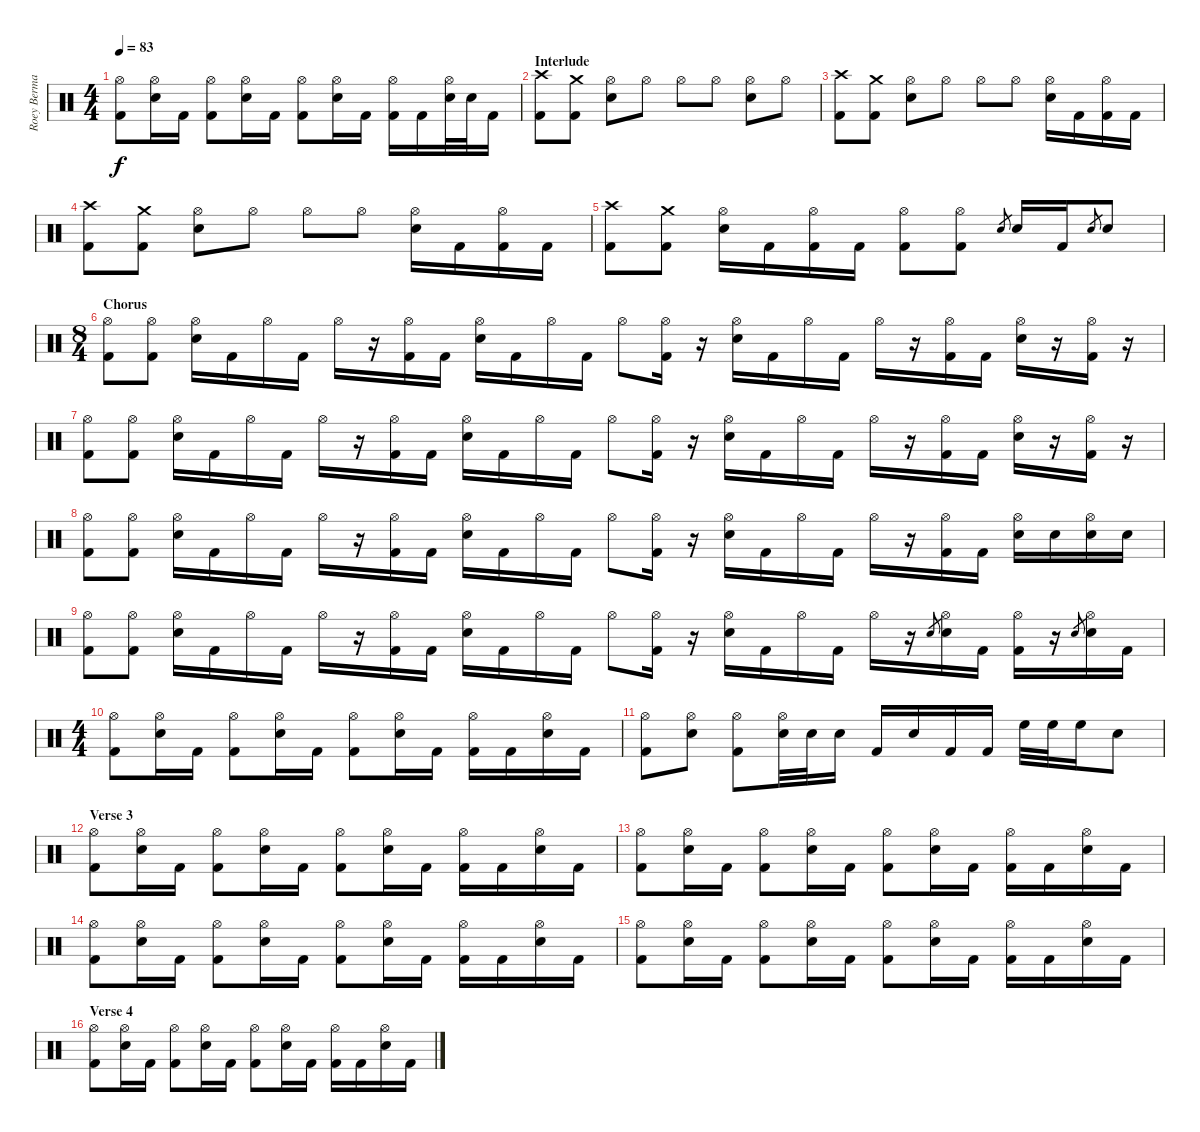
\track ("Roey Berman" "Roey Berma") {instrument percussion}
\staff {score}
\articulation defaults
\ts (4 4)
\tempo 83
\clef neutral
\ks c
("Hi-Hat (open)" "Kick (hit) 2").8{dy f} ("Hi-Hat (open)" "Electric Snare (hit)").16 "Kick (hit) 2".16 ("Hi-Hat (open)" "Kick (hit) 2").8 ("Hi-Hat (open)" "Electric Snare (hit)").16 "Kick (hit) 2".16 ("Hi-Hat (open)" "Kick (hit) 2").8 ("Hi-Hat (open)" "Electric Snare (hit)").16 "Kick (hit) 2".16 ("Hi-Hat (open)" "Kick (hit) 2").16 "Kick (hit) 2".16 ("Hi-Hat (open)" "Electric Snare (hit)").32 "Electric Snare (hit)".32 "Kick (hit) 2".16 |
\section ("" "Interlude")
("Crash high (hit)" "Kick (hit) 2").8 ("Crash medium (hit)" "Kick (hit) 2").8 ("Hi-Hat (open)" "Electric Snare (hit)").8 "Hi-Hat (open)".8 "Hi-Hat (open)".8 "Hi-Hat (open)".8 ("Hi-Hat (open)" "Electric Snare (hit)").8 "Hi-Hat (open)".8 |
("Crash high (hit)" "Kick (hit) 2").8 ("Crash medium (hit)" "Kick (hit) 2").8 ("Hi-Hat (open)" "Electric Snare (hit)").8 "Hi-Hat (open)".8 "Hi-Hat (open)".8 "Hi-Hat (open)".8 ("Hi-Hat (open)" "Electric Snare (hit)").16 "Kick (hit) 2".16 ("Hi-Hat (open)" "Kick (hit) 2").16 "Kick (hit) 2".16 |
("Crash high (hit)" "Kick (hit) 2").8 ("Crash medium (hit)" "Kick (hit) 2").8 ("Hi-Hat (open)" "Electric Snare (hit)").8 "Hi-Hat (open)".8 "Hi-Hat (open)".8 "Hi-Hat (open)".8 ("Hi-Hat (open)" "Electric Snare (hit)").16 "Kick (hit) 2".16 ("Hi-Hat (open)" "Kick (hit) 2").16 "Kick (hit) 2".16 |
("Crash high (hit)" "Kick (hit) 2").8 ("Crash medium (hit)" "Kick (hit) 2").8 ("Hi-Hat (open)" "Electric Snare (hit)").16 "Kick (hit) 2".16 ("Hi-Hat (open)" "Kick (hit) 2").16 "Kick (hit) 2".16 ("Hi-Hat (open)" "Kick (hit) 2").8 ("Hi-Hat (open)" "Kick (hit) 2").8 "Electric Snare (hit)".8{gr} "Electric Snare (hit)".16 "Kick (hit) 2".16 "Electric Snare (hit)".8{gr} "Electric Snare (hit)".8 |
\ts (8 4)
\section ("" "Chorus")
("Hi-Hat (open)" "Kick (hit) 2").8 ("Hi-Hat (open)" "Kick (hit) 2").8 ("Hi-Hat (open)" "Electric Snare (hit)").16 "Kick (hit) 2".16 "Hi-Hat (open)".16 "Kick (hit) 2".16 "Hi-Hat (open)".16 r.16 ("Hi-Hat (open)" "Kick (hit) 2").16 "Kick (hit) 2".16 ("Hi-Hat (open)" "Electric Snare (hit)").16 "Kick (hit) 2".16 "Hi-Hat (open)".16 "Kick (hit) 2".16 "Hi-Hat (open)".8 ("Hi-Hat (open)" "Kick (hit) 2").16 r.16 ("Hi-Hat (open)" "Electric Snare (hit)").16 "Kick (hit) 2".16 "Hi-Hat (open)".16 "Kick (hit) 2".16 "Hi-Hat (open)".16 r.16 ("Hi-Hat (open)" "Kick (hit) 2").16 "Kick (hit) 2".16 ("Hi-Hat (open)" "Electric Snare (hit)").16 r.16 ("Hi-Hat (open)" "Kick (hit) 2").16 r.16 |
("Hi-Hat (open)" "Kick (hit) 2").8 ("Hi-Hat (open)" "Kick (hit) 2").8 ("Hi-Hat (open)" "Electric Snare (hit)").16 "Kick (hit) 2".16 "Hi-Hat (open)".16 "Kick (hit) 2".16 "Hi-Hat (open)".16 r.16 ("Hi-Hat (open)" "Kick (hit) 2").16 "Kick (hit) 2".16 ("Hi-Hat (open)" "Electric Snare (hit)").16 "Kick (hit) 2".16 "Hi-Hat (open)".16 "Kick (hit) 2".16 "Hi-Hat (open)".8 ("Hi-Hat (open)" "Kick (hit) 2").16 r.16 ("Hi-Hat (open)" "Electric Snare (hit)").16 "Kick (hit) 2".16 "Hi-Hat (open)".16 "Kick (hit) 2".16 "Hi-Hat (open)".16 r.16 ("Hi-Hat (open)" "Kick (hit) 2").16 "Kick (hit) 2".16 ("Hi-Hat (open)" "Electric Snare (hit)").16 r.16 ("Hi-Hat (open)" "Kick (hit) 2").16 r.16 |
("Hi-Hat (open)" "Kick (hit) 2").8 ("Hi-Hat (open)" "Kick (hit) 2").8 ("Hi-Hat (open)" "Electric Snare (hit)").16 "Kick (hit) 2".16 "Hi-Hat (open)".16 "Kick (hit) 2".16 "Hi-Hat (open)".16 r.16 ("Hi-Hat (open)" "Kick (hit) 2").16 "Kick (hit) 2".16 ("Hi-Hat (open)" "Electric Snare (hit)").16 "Kick (hit) 2".16 "Hi-Hat (open)".16 "Kick (hit) 2".16 "Hi-Hat (open)".8 ("Hi-Hat (open)" "Kick (hit) 2").16 r.16 ("Hi-Hat (open)" "Electric Snare (hit)").16 "Kick (hit) 2".16 "Hi-Hat (open)".16 "Kick (hit) 2".16 "Hi-Hat (open)".16 r.16 ("Hi-Hat (open)" "Kick (hit) 2").16 "Kick (hit) 2".16 ("Hi-Hat (open)" "Electric Snare (hit)").16 "Electric Snare (hit)".16 ("Hi-Hat (open)" "Electric Snare (hit)").16 "Electric Snare (hit)".16 |
("Hi-Hat (open)" "Kick (hit) 2").8 ("Hi-Hat (open)" "Kick (hit) 2").8 ("Hi-Hat (open)" "Electric Snare (hit)").16 "Kick (hit) 2".16 "Hi-Hat (open)".16 "Kick (hit) 2".16 "Hi-Hat (open)".16 r.16 ("Hi-Hat (open)" "Kick (hit) 2").16 "Kick (hit) 2".16 ("Hi-Hat (open)" "Electric Snare (hit)").16 "Kick (hit) 2".16 "Hi-Hat (open)".16 "Kick (hit) 2".16 "Hi-Hat (open)".8 ("Hi-Hat (open)" "Kick (hit) 2").16 r.16 ("Hi-Hat (open)" "Electric Snare (hit)").16 "Kick (hit) 2".16 "Hi-Hat (open)".16 "Kick (hit) 2".16 "Hi-Hat (open)".16 r.16 "Electric Snare (hit)".8{gr} ("Hi-Hat (open)" "Electric Snare (hit)").16 "Kick (hit) 2".16 ("Hi-Hat (open)" "Kick (hit) 2").16 r.16 "Electric Snare (hit)".8{gr} ("Hi-Hat (open)" "Electric Snare (hit)").16 "Kick (hit) 2".16 |
\ts (4 4)
("Hi-Hat (open)" "Kick (hit) 2").8 ("Hi-Hat (open)" "Electric Snare (hit)").16 "Kick (hit) 2".16 ("Hi-Hat (open)" "Kick (hit) 2").8 ("Hi-Hat (open)" "Electric Snare (hit)").16 "Kick (hit) 2".16 ("Hi-Hat (open)" "Kick (hit) 2").8 ("Hi-Hat (open)" "Electric Snare (hit)").16 "Kick (hit) 2".16 ("Hi-Hat (open)" "Kick (hit) 2").16 "Kick (hit) 2".16 ("Hi-Hat (open)" "Electric Snare (hit)").16 "Kick (hit) 2".16 |
("Hi-Hat (open)" "Kick (hit) 2").8 ("Hi-Hat (open)" "Electric Snare (hit)").8 ("Hi-Hat (open)" "Kick (hit) 2").8 ("Hi-Hat (open)" "Electric Snare (hit)").32 "Electric Snare (hit)".32 "Electric Snare (hit)".16 "Kick (hit) 2".16 "Electric Snare (hit)".16 "Kick (hit) 2".16 "Kick (hit) 2".16 "High Floor Tom (hit)".32 "High Floor Tom (hit)".32 "High Floor Tom (hit)".16 "Electric Snare (hit)".8 |
\section ("" "Verse 3")
("Hi-Hat (open)" "Kick (hit) 2").8 ("Hi-Hat (open)" "Electric Snare (hit)").16 "Kick (hit) 2".16 ("Hi-Hat (open)" "Kick (hit) 2").8 ("Hi-Hat (open)" "Electric Snare (hit)").16 "Kick (hit) 2".16 ("Hi-Hat (open)" "Kick (hit) 2").8 ("Hi-Hat (open)" "Electric Snare (hit)").16 "Kick (hit) 2".16 ("Hi-Hat (open)" "Kick (hit) 2").16 "Kick (hit) 2".16 ("Hi-Hat (open)" "Electric Snare (hit)").16 "Kick (hit) 2".16 |
("Hi-Hat (open)" "Kick (hit) 2").8 ("Hi-Hat (open)" "Electric Snare (hit)").16 "Kick (hit) 2".16 ("Hi-Hat (open)" "Kick (hit) 2").8 ("Hi-Hat (open)" "Electric Snare (hit)").16 "Kick (hit) 2".16 ("Hi-Hat (open)" "Kick (hit) 2").8 ("Hi-Hat (open)" "Electric Snare (hit)").16 "Kick (hit) 2".16 ("Hi-Hat (open)" "Kick (hit) 2").16 "Kick (hit) 2".16 ("Hi-Hat (open)" "Electric Snare (hit)").16 "Kick (hit) 2".16 |
("Hi-Hat (open)" "Kick (hit) 2").8 ("Hi-Hat (open)" "Electric Snare (hit)").16 "Kick (hit) 2".16 ("Hi-Hat (open)" "Kick (hit) 2").8 ("Hi-Hat (open)" "Electric Snare (hit)").16 "Kick (hit) 2".16 ("Hi-Hat (open)" "Kick (hit) 2").8 ("Hi-Hat (open)" "Electric Snare (hit)").16 "Kick (hit) 2".16 ("Hi-Hat (open)" "Kick (hit) 2").16 "Kick (hit) 2".16 ("Hi-Hat (open)" "Electric Snare (hit)").16 "Kick (hit) 2".16 |
("Hi-Hat (open)" "Kick (hit) 2").8 ("Hi-Hat (open)" "Electric Snare (hit)").16 "Kick (hit) 2".16 ("Hi-Hat (open)" "Kick (hit) 2").8 ("Hi-Hat (open)" "Electric Snare (hit)").16 "Kick (hit) 2".16 ("Hi-Hat (open)" "Kick (hit) 2").8 ("Hi-Hat (open)" "Electric Snare (hit)").16 "Kick (hit) 2".16 ("Hi-Hat (open)" "Kick (hit) 2").16 "Kick (hit) 2".16 ("Hi-Hat (open)" "Electric Snare (hit)").16 "Kick (hit) 2".16 |
\section ("" "Verse 4")
("Hi-Hat (open)" "Kick (hit) 2").8 ("Hi-Hat (open)" "Electric Snare (hit)").16 "Kick (hit) 2".16 ("Hi-Hat (open)" "Kick (hit) 2").8 ("Hi-Hat (open)" "Electric Snare (hit)").16 "Kick (hit) 2".16 ("Hi-Hat (open)" "Kick (hit) 2").8 ("Hi-Hat (open)" "Electric Snare (hit)").16 "Kick (hit) 2".16 ("Hi-Hat (open)" "Kick (hit) 2").16 "Kick (hit) 2".16 ("Hi-Hat (open)" "Electric Snare (hit)").16 "Kick (hit) 2".16
